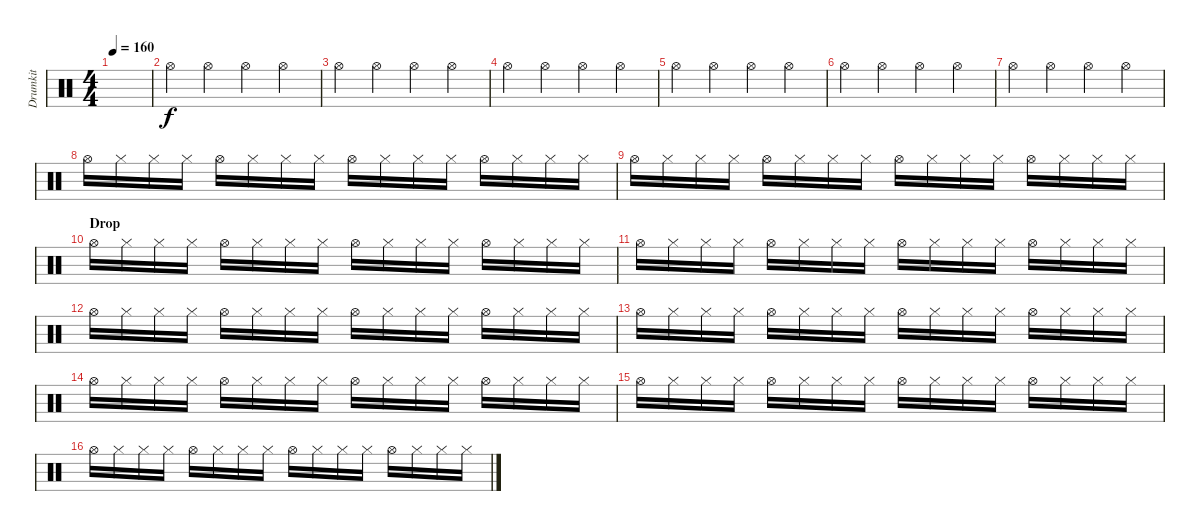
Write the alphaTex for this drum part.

\track ("Drumkit" "Drumkit") {instrument percussion}
\staff {score}
\articulation defaults
\ts (4 4)
\tempo 160
\clef neutral
\ks c
|
"Hi-Hat (open)".4 "Hi-Hat (open)".4 "Hi-Hat (open)".4 "Hi-Hat (open)".4 |
"Hi-Hat (open)".4 "Hi-Hat (open)".4 "Hi-Hat (open)".4 "Hi-Hat (open)".4 |
"Hi-Hat (open)".4 "Hi-Hat (open)".4 "Hi-Hat (open)".4 "Hi-Hat (open)".4 |
"Hi-Hat (open)".4 "Hi-Hat (open)".4 "Hi-Hat (open)".4 "Hi-Hat (open)".4 |
"Hi-Hat (open)".4 "Hi-Hat (open)".4 "Hi-Hat (open)".4 "Hi-Hat (open)".4 |
"Hi-Hat (open)".4 "Hi-Hat (open)".4 "Hi-Hat (open)".4 "Hi-Hat (open)".4 |
"Hi-Hat (open)".16 "Hi-Hat (closed)".16 "Hi-Hat (closed)".16 "Hi-Hat (closed)".16 "Hi-Hat (open)".16 "Hi-Hat (closed)".16 "Hi-Hat (closed)".16 "Hi-Hat (closed)".16 "Hi-Hat (open)".16 "Hi-Hat (closed)".16 "Hi-Hat (closed)".16 "Hi-Hat (closed)".16 "Hi-Hat (open)".16 "Hi-Hat (closed)".16 "Hi-Hat (closed)".16 "Hi-Hat (closed)".16 |
"Hi-Hat (open)".16 "Hi-Hat (closed)".16 "Hi-Hat (closed)".16 "Hi-Hat (closed)".16 "Hi-Hat (open)".16 "Hi-Hat (closed)".16 "Hi-Hat (closed)".16 "Hi-Hat (closed)".16 "Hi-Hat (open)".16 "Hi-Hat (closed)".16 "Hi-Hat (closed)".16 "Hi-Hat (closed)".16 "Hi-Hat (open)".16 "Hi-Hat (closed)".16 "Hi-Hat (closed)".16 "Hi-Hat (closed)".16 |
\section ("" "Drop")
"Hi-Hat (open)".16 "Hi-Hat (closed)".16 "Hi-Hat (closed)".16 "Hi-Hat (closed)".16 "Hi-Hat (open)".16 "Hi-Hat (closed)".16 "Hi-Hat (closed)".16 "Hi-Hat (closed)".16 "Hi-Hat (open)".16 "Hi-Hat (closed)".16 "Hi-Hat (closed)".16 "Hi-Hat (closed)".16 "Hi-Hat (open)".16 "Hi-Hat (closed)".16 "Hi-Hat (closed)".16 "Hi-Hat (closed)".16 |
"Hi-Hat (open)".16 "Hi-Hat (closed)".16 "Hi-Hat (closed)".16 "Hi-Hat (closed)".16 "Hi-Hat (open)".16 "Hi-Hat (closed)".16 "Hi-Hat (closed)".16 "Hi-Hat (closed)".16 "Hi-Hat (open)".16 "Hi-Hat (closed)".16 "Hi-Hat (closed)".16 "Hi-Hat (closed)".16 "Hi-Hat (open)".16 "Hi-Hat (closed)".16 "Hi-Hat (closed)".16 "Hi-Hat (closed)".16 |
"Hi-Hat (open)".16 "Hi-Hat (closed)".16 "Hi-Hat (closed)".16 "Hi-Hat (closed)".16 "Hi-Hat (open)".16 "Hi-Hat (closed)".16 "Hi-Hat (closed)".16 "Hi-Hat (closed)".16 "Hi-Hat (open)".16 "Hi-Hat (closed)".16 "Hi-Hat (closed)".16 "Hi-Hat (closed)".16 "Hi-Hat (open)".16 "Hi-Hat (closed)".16 "Hi-Hat (closed)".16 "Hi-Hat (closed)".16 |
"Hi-Hat (open)".16 "Hi-Hat (closed)".16 "Hi-Hat (closed)".16 "Hi-Hat (closed)".16 "Hi-Hat (open)".16 "Hi-Hat (closed)".16 "Hi-Hat (closed)".16 "Hi-Hat (closed)".16 "Hi-Hat (open)".16 "Hi-Hat (closed)".16 "Hi-Hat (closed)".16 "Hi-Hat (closed)".16 "Hi-Hat (open)".16 "Hi-Hat (closed)".16 "Hi-Hat (closed)".16 "Hi-Hat (closed)".16 |
"Hi-Hat (open)".16 "Hi-Hat (closed)".16 "Hi-Hat (closed)".16 "Hi-Hat (closed)".16 "Hi-Hat (open)".16 "Hi-Hat (closed)".16 "Hi-Hat (closed)".16 "Hi-Hat (closed)".16 "Hi-Hat (open)".16 "Hi-Hat (closed)".16 "Hi-Hat (closed)".16 "Hi-Hat (closed)".16 "Hi-Hat (open)".16 "Hi-Hat (closed)".16 "Hi-Hat (closed)".16 "Hi-Hat (closed)".16 |
"Hi-Hat (open)".16 "Hi-Hat (closed)".16 "Hi-Hat (closed)".16 "Hi-Hat (closed)".16 "Hi-Hat (open)".16 "Hi-Hat (closed)".16 "Hi-Hat (closed)".16 "Hi-Hat (closed)".16 "Hi-Hat (open)".16 "Hi-Hat (closed)".16 "Hi-Hat (closed)".16 "Hi-Hat (closed)".16 "Hi-Hat (open)".16 "Hi-Hat (closed)".16 "Hi-Hat (closed)".16 "Hi-Hat (closed)".16 |
"Hi-Hat (open)".16 "Hi-Hat (closed)".16 "Hi-Hat (closed)".16 "Hi-Hat (closed)".16 "Hi-Hat (open)".16 "Hi-Hat (closed)".16 "Hi-Hat (closed)".16 "Hi-Hat (closed)".16 "Hi-Hat (open)".16 "Hi-Hat (closed)".16 "Hi-Hat (closed)".16 "Hi-Hat (closed)".16 "Hi-Hat (open)".16 "Hi-Hat (closed)".16 "Hi-Hat (closed)".16 "Hi-Hat (closed)".16
